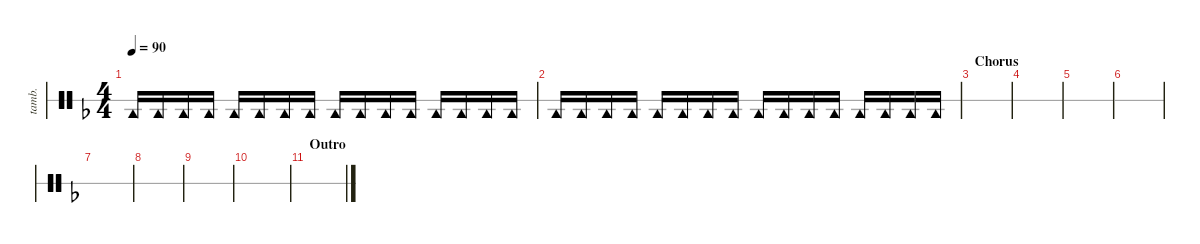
\defaultSystemsLayout 4
\hideDynamics
\bracketExtendMode nobrackets
\track ("Tambourine" "tamb.") {instrument percussion}
\staff {score 1}
\articulation defaults
\ts (4 4)
\tempo 90
\clef neutral
\ks f "Tambourine (hit)"{acc forcenatural}.16{dy mf} "Tambourine (hit)"{acc forcenatural}.16 "Tambourine (hit)"{acc forcenatural}.16 "Tambourine (hit)"{acc forcenatural}.16 "Tambourine (hit)"{acc forcenatural}.16 "Tambourine (hit)"{acc forcenatural}.16 "Tambourine (hit)"{acc forcenatural}.16 "Tambourine (hit)"{acc forcenatural}.16 "Tambourine (hit)"{acc forcenatural}.16 "Tambourine (hit)"{acc forcenatural}.16 "Tambourine (hit)"{acc forcenatural}.16 "Tambourine (hit)"{acc forcenatural}.16 "Tambourine (hit)"{acc forcenatural}.16 "Tambourine (hit)"{acc forcenatural}.16 "Tambourine (hit)"{acc forcenatural}.16 "Tambourine (hit)"{acc forcenatural}.16
|
"Tambourine (hit)"{acc forcenatural}.16 "Tambourine (hit)"{acc forcenatural}.16 "Tambourine (hit)"{acc forcenatural}.16 "Tambourine (hit)"{acc forcenatural}.16 "Tambourine (hit)"{acc forcenatural}.16 "Tambourine (hit)"{acc forcenatural}.16 "Tambourine (hit)"{acc forcenatural}.16 "Tambourine (hit)"{acc forcenatural}.16 "Tambourine (hit)"{acc forcenatural}.16 "Tambourine (hit)"{acc forcenatural}.16 "Tambourine (hit)"{acc forcenatural}.16 "Tambourine (hit)"{acc forcenatural}.16 "Tambourine (hit)"{acc forcenatural}.16 "Tambourine (hit)"{acc forcenatural}.16 "Tambourine (hit)"{acc forcenatural}.16 "Tambourine (hit)"{acc forcenatural}.16 |
\section ("" "Chorus")
|
|
|
|
|
|
|
|
\section ("" "Outro")
